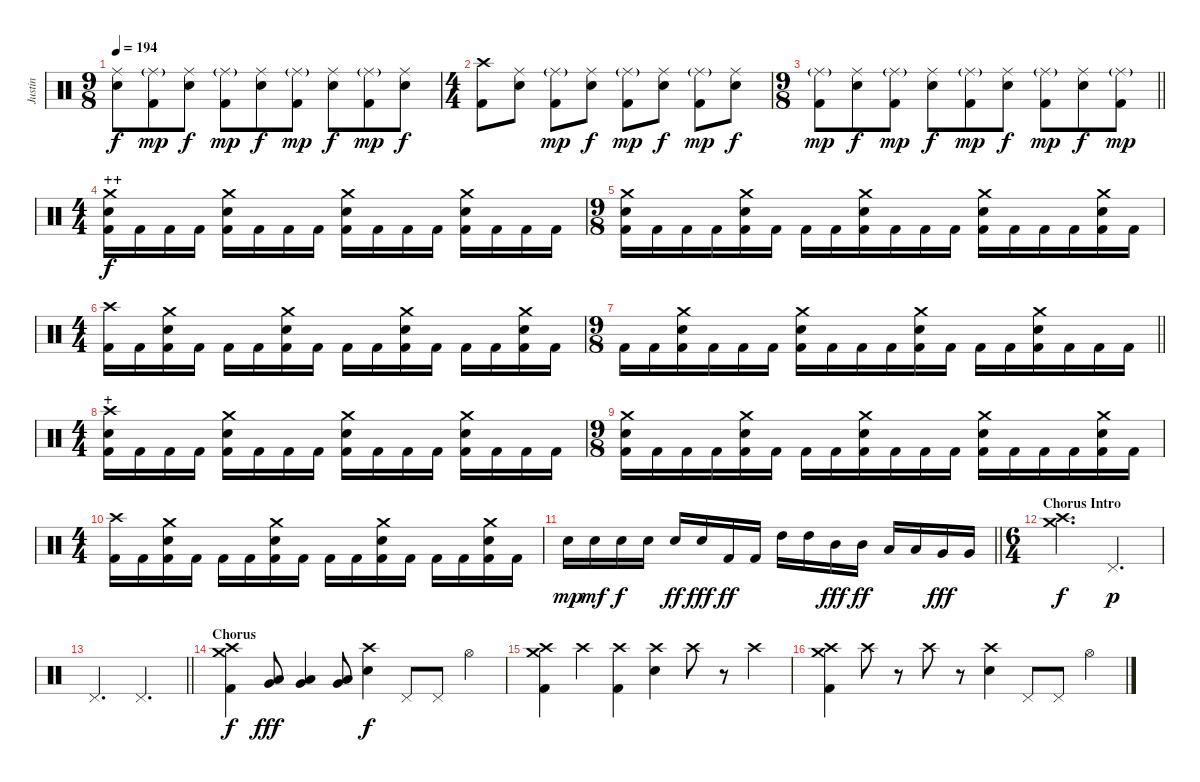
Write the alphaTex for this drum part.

\track ("Justin" "Justin") {instrument percussion}
\staff {score}
\articulation defaults
\ts (9 8)
\tempo 194
\clef neutral
\ks c
("Ride (middle)" "Electric Snare (hit)").8{dy f} ("Ride (middle)"{g} "Kick (hit) 2").8{dy mp} ("Ride (middle)" "Electric Snare (hit)").8{dy f} ("Ride (middle)"{g} "Kick (hit) 2").8{dy mp} ("Ride (middle)" "Electric Snare (hit)").8{dy f} ("Ride (middle)"{g} "Kick (hit) 2").8{dy mp} ("Ride (middle)" "Electric Snare (hit)").8{dy f} ("Ride (middle)"{g} "Kick (hit) 2").8{dy mp} ("Ride (middle)" "Electric Snare (hit)").8{dy f} |
\ts (4 4)
("Crash high (hit)" "Kick (hit) 2").8 ("Ride (middle)" "Electric Snare (hit)").8 ("Ride (middle)"{g} "Kick (hit) 2").8{dy mp} ("Ride (middle)" "Electric Snare (hit)").8{dy f} ("Ride (middle)"{g} "Kick (hit) 2").8{dy mp} ("Ride (middle)" "Electric Snare (hit)").8{dy f} ("Ride (middle)"{g} "Kick (hit) 2").8{dy mp} ("Ride (middle)" "Electric Snare (hit)").8{dy f} |
\ts (9 8)
\barLineRight lightlight
("Ride (middle)"{g} "Kick (hit) 2").8{dy mp} ("Ride (middle)" "Electric Snare (hit)").8{dy f} ("Ride (middle)"{g} "Kick (hit) 2").8{dy mp} ("Ride (middle)" "Electric Snare (hit)").8{dy f} ("Ride (middle)"{g} "Kick (hit) 2").8{dy mp} ("Ride (middle)" "Electric Snare (hit)").8{dy f} ("Ride (middle)"{g} "Kick (hit) 2").8{dy mp} ("Ride (middle)" "Electric Snare (hit)").8{dy f} ("Ride (middle)"{g} "Kick (hit) 2").8{dy mp} |
\ts (4 4)
\section ("" "++")
("Crash medium (hit)" "Electric Snare (hit)" "Kick (hit) 2").16{dy f} "Kick (hit) 2".16 "Kick (hit) 2".16 "Kick (hit) 2".16 ("Crash medium (hit)" "Electric Snare (hit)" "Kick (hit) 2").16 "Kick (hit) 2".16 "Kick (hit) 2".16 "Kick (hit) 2".16 ("Crash medium (hit)" "Electric Snare (hit)" "Kick (hit) 2").16 "Kick (hit) 2".16 "Kick (hit) 2".16 "Kick (hit) 2".16 ("Crash medium (hit)" "Electric Snare (hit)" "Kick (hit) 2").16 "Kick (hit) 2".16 "Kick (hit) 2".16 "Kick (hit) 2".16 |
\ts (9 8)
("Crash medium (hit)" "Electric Snare (hit)" "Kick (hit) 2").16 "Kick (hit) 2".16 "Kick (hit) 2".16 "Kick (hit) 2".16 ("Crash medium (hit)" "Electric Snare (hit)" "Kick (hit) 2").16 "Kick (hit) 2".16 "Kick (hit) 2".16 "Kick (hit) 2".16 ("Crash medium (hit)" "Electric Snare (hit)" "Kick (hit) 2").16 "Kick (hit) 2".16 "Kick (hit) 2".16 "Kick (hit) 2".16 ("Crash medium (hit)" "Electric Snare (hit)" "Kick (hit) 2").16 "Kick (hit) 2".16 "Kick (hit) 2".16 "Kick (hit) 2".16 ("Crash medium (hit)" "Electric Snare (hit)" "Kick (hit) 2").16 "Kick (hit) 2".16 |
\ts (4 4)
("Crash high (hit)" "Kick (hit) 2").16 "Kick (hit) 2".16 ("Crash medium (hit)" "Electric Snare (hit)" "Kick (hit) 2").16 "Kick (hit) 2".16 "Kick (hit) 2".16 "Kick (hit) 2".16 ("Crash medium (hit)" "Electric Snare (hit)" "Kick (hit) 2").16 "Kick (hit) 2".16 "Kick (hit) 2".16 "Kick (hit) 2".16 ("Crash medium (hit)" "Electric Snare (hit)" "Kick (hit) 2").16 "Kick (hit) 2".16 "Kick (hit) 2".16 "Kick (hit) 2".16 ("Crash medium (hit)" "Electric Snare (hit)" "Kick (hit) 2").16 "Kick (hit) 2".16 |
\ts (9 8)
\barLineRight lightlight "Kick (hit) 2".16 "Kick (hit) 2".16
("Crash medium (hit)" "Electric Snare (hit)" "Kick (hit) 2").16 "Kick (hit) 2".16 "Kick (hit) 2".16 "Kick (hit) 2".16 ("Crash medium (hit)" "Electric Snare (hit)" "Kick (hit) 2").16 "Kick (hit) 2".16 "Kick (hit) 2".16 "Kick (hit) 2".16 ("Crash medium (hit)" "Electric Snare (hit)" "Kick (hit) 2").16 "Kick (hit) 2".16 "Kick (hit) 2".16 "Kick (hit) 2".16 ("Crash medium (hit)" "Electric Snare (hit)" "Kick (hit) 2").16 "Kick (hit) 2".16 "Kick (hit) 2".16 "Kick (hit) 2".16 |
\ts (4 4)
\section ("" "+")
("Crash high (hit)" "Electric Snare (hit)" "Kick (hit) 2").16 "Kick (hit) 2".16 "Kick (hit) 2".16 "Kick (hit) 2".16 ("Crash medium (hit)" "Electric Snare (hit)" "Kick (hit) 2").16 "Kick (hit) 2".16 "Kick (hit) 2".16 "Kick (hit) 2".16 ("Crash medium (hit)" "Electric Snare (hit)" "Kick (hit) 2").16 "Kick (hit) 2".16 "Kick (hit) 2".16 "Kick (hit) 2".16 ("Crash medium (hit)" "Electric Snare (hit)" "Kick (hit) 2").16 "Kick (hit) 2".16 "Kick (hit) 2".16 "Kick (hit) 2".16 |
\ts (9 8)
("Crash medium (hit)" "Electric Snare (hit)" "Kick (hit) 2").16 "Kick (hit) 2".16 "Kick (hit) 2".16 "Kick (hit) 2".16 ("Crash medium (hit)" "Electric Snare (hit)" "Kick (hit) 2").16 "Kick (hit) 2".16 "Kick (hit) 2".16 "Kick (hit) 2".16 ("Crash medium (hit)" "Electric Snare (hit)" "Kick (hit) 2").16 "Kick (hit) 2".16 "Kick (hit) 2".16 "Kick (hit) 2".16 ("Crash medium (hit)" "Electric Snare (hit)" "Kick (hit) 2").16 "Kick (hit) 2".16 "Kick (hit) 2".16 "Kick (hit) 2".16 ("Crash medium (hit)" "Electric Snare (hit)" "Kick (hit) 2").16 "Kick (hit) 2".16 |
\ts (4 4)
("Crash high (hit)" "Kick (hit) 2").16 "Kick (hit) 2".16 ("Crash medium (hit)" "Electric Snare (hit)" "Kick (hit) 2").16 "Kick (hit) 2".16 "Kick (hit) 2".16 "Kick (hit) 2".16 ("Crash medium (hit)" "Electric Snare (hit)" "Kick (hit) 2").16 "Kick (hit) 2".16 "Kick (hit) 2".16 "Kick (hit) 2".16 ("Crash medium (hit)" "Electric Snare (hit)" "Kick (hit) 2").16 "Kick (hit) 2".16 "Kick (hit) 2".16 "Kick (hit) 2".16 ("Crash medium (hit)" "Electric Snare (hit)" "Kick (hit) 2").16 "Kick (hit) 2".16 |
\barLineRight lightlight "Electric Snare (hit)".16{dy mp} "Electric Snare (hit)".16{dy mf} "Electric Snare (hit)".16{dy f} "Electric Snare (hit)".16 "Electric Snare (hit)".16{dy ff} "Electric Snare (hit)".16{dy fff} "Kick (hit) 2".16{dy ff} "Kick (hit) 2".16 "High Tom (hit)".16 "High Tom (hit)".16 "Mid Tom (hit)".16{dy fff} "Mid Tom (hit)".16{dy ff} "Low Tom (hit)".16 "Low Tom (hit)".16 "Very Low Tom (hit)".16{dy fff} "Very Low Tom (hit)".16
|
\ts (6 4)
\section ("" "Chorus Intro")
("Crash medium (hit)" "Crash high (hit)").2{d dy f} "Pedal Hi-Hat (hit)".2{d dy p} |
\barLineRight lightlight "Pedal Hi-Hat (hit)".2{d} "Pedal Hi-Hat (hit)".2{d}
|
\section ("" "Chorus")
("Crash medium (hit)" "Crash high (hit)" "Kick (hit) 2").4{dy f} ("Low Tom (hit)" "Very Low Tom (hit)").8{dy fff} ("Low Tom (hit)" "Very Low Tom (hit)").4 ("Low Tom (hit)" "Very Low Tom (hit)").8 ("Crash high (hit)" "Electric Snare (hit)").4{dy f} "Pedal Hi-Hat (hit)".8 "Pedal Hi-Hat (hit)".8 "Hi-Hat (open)".4 |
("Crash medium (hit)" "Crash high (hit)" "Kick (hit) 2").4 "Crash high (hit)".4 ("Crash high (hit)" "Kick (hit) 2").4 ("Crash high (hit)" "Electric Snare (hit)").4 "Crash high (hit)".8 r.8 "Crash high (hit)".4 |
("Crash medium (hit)" "Crash high (hit)" "Kick (hit) 2").4 "Crash high (hit)".8 r.8 "Crash high (hit)".8 r.8 ("Crash high (hit)" "Electric Snare (hit)").4 "Pedal Hi-Hat (hit)".8 "Pedal Hi-Hat (hit)".8 "Hi-Hat (open)".4
